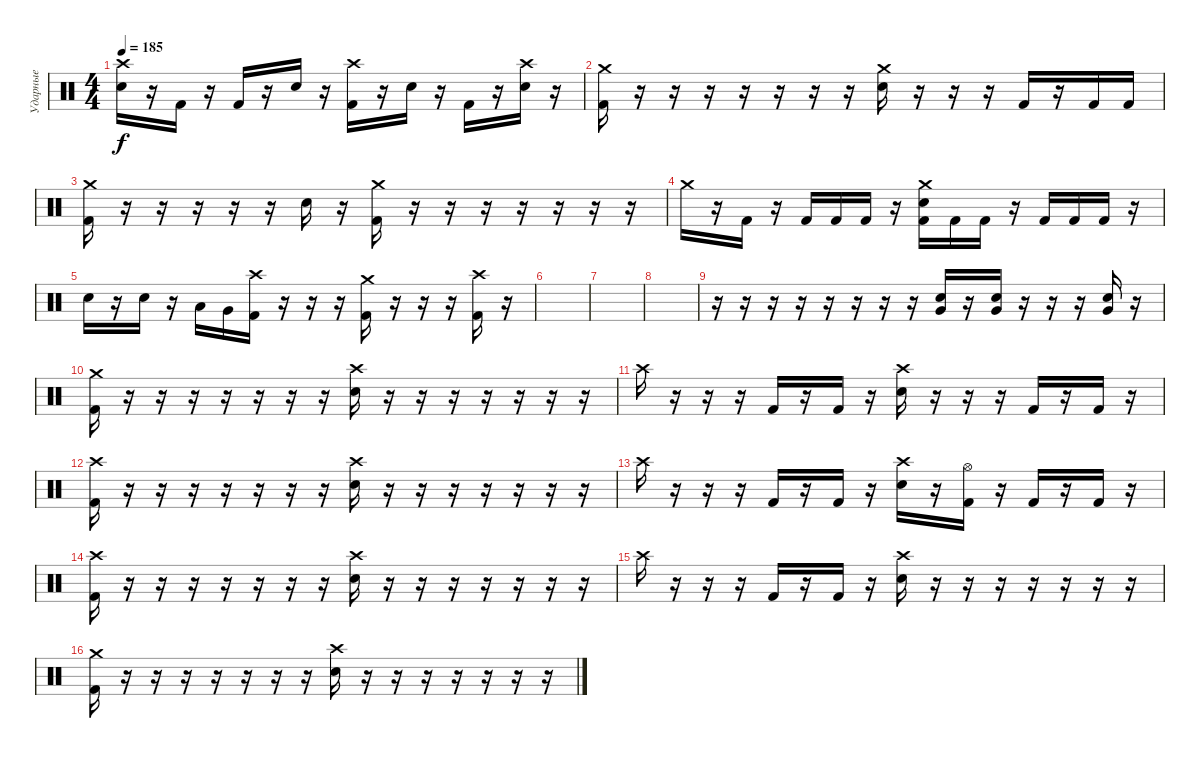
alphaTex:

\track ("Ударные" "Ударные") {instrument percussion}
\staff {score}
\articulation defaults
\ts (4 4)
\tempo 185
\clef neutral
\ks c
("Crash high (hit)" "Electric Snare (hit)").16{dy f} r.16 "Kick (hit) 2".16 r.16 "Kick (hit) 2".16 r.16 "Electric Snare (hit)".16 r.16 ("Crash high (hit)" "Kick (hit) 2").16 r.16 "Electric Snare (hit)".16 r.16 "Kick (hit) 2".16 r.16 ("Crash high (hit)" "Electric Snare (hit)").16 r.16 |
("Crash medium (hit)" "Kick (hit) 2").16 r.16 r.16 r.16 r.16 r.16 r.16 r.16 ("Crash medium (hit)" "Electric Snare (hit)").16 r.16 r.16 r.16 "Kick (hit) 2".16 r.16 "Kick (hit) 2".16 "Kick (hit) 2".16 |
("Crash medium (hit)" "Kick (hit) 2").16 r.16 r.16 r.16 r.16 r.16 "Electric Snare (hit)".16 r.16 ("Crash medium (hit)" "Kick (hit) 2").16 r.16 r.16 r.16 r.16 r.16 r.16 r.16 |
"Crash medium (hit)".16 r.16 "Kick (hit) 2".16 r.16 "Kick (hit) 2".16 "Kick (hit) 2".16 "Kick (hit) 2".16 r.16 ("Crash medium (hit)" "Electric Snare (hit)" "Kick (hit) 2").16 "Kick (hit) 2".16 "Kick (hit) 2".16 r.16 "Kick (hit) 2".16 "Kick (hit) 2".16 "Kick (hit) 2".16 r.16 |
"Electric Snare (hit)".16 r.16 "Electric Snare (hit)".16 r.16 "Low Tom (hit)".16 "Very Low Tom (hit)".16 ("Crash high (hit)" "Kick (hit) 2").16 r.16 r.16 r.16 ("Crash medium (hit)" "Kick (hit) 2").16 r.16 r.16 r.16 ("Crash high (hit)" "Kick (hit) 2").16 r.16 |
|
|
|
r.16 r.16 r.16 r.16 r.16 r.16 r.16 r.16 ("Very Low Tom (hit)" "Electric Snare (hit)").16 r.16 ("Very Low Tom (hit)" "Electric Snare (hit)").16 r.16 r.16 r.16 ("Very Low Tom (hit)" "Electric Snare (hit)").16 r.16 |
("Crash medium (hit)" "Kick (hit) 2").16 r.16 r.16 r.16 r.16 r.16 r.16 r.16 ("Crash high (hit)" "Electric Snare (hit)").16 r.16 r.16 r.16 r.16 r.16 r.16 r.16 |
"Crash high (hit)".16 r.16 r.16 r.16 "Kick (hit) 2".16 r.16 "Kick (hit) 2".16 r.16 ("Crash high (hit)" "Electric Snare (hit)").16 r.16 r.16 r.16 "Kick (hit) 2".16 r.16 "Kick (hit) 2".16 r.16 |
("Crash high (hit)" "Kick (hit) 2").16 r.16 r.16 r.16 r.16 r.16 r.16 r.16 ("Crash high (hit)" "Electric Snare (hit)").16 r.16 r.16 r.16 r.16 r.16 r.16 r.16 |
"Crash high (hit)".16 r.16 r.16 r.16 "Kick (hit) 2".16 r.16 "Kick (hit) 2".16 r.16 ("Crash high (hit)" "Electric Snare (hit)").16 r.16 ("Hi-Hat (open)" "Kick (hit) 2").16 r.16 "Kick (hit) 2".16 r.16 "Kick (hit) 2".16 r.16 |
("Crash high (hit)" "Kick (hit) 2").16 r.16 r.16 r.16 r.16 r.16 r.16 r.16 ("Crash high (hit)" "Electric Snare (hit)").16 r.16 r.16 r.16 r.16 r.16 r.16 r.16 |
"Crash high (hit)".16 r.16 r.16 r.16 "Kick (hit) 2".16 r.16 "Kick (hit) 2".16 r.16 ("Crash high (hit)" "Electric Snare (hit)").16 r.16 r.16 r.16 r.16 r.16 r.16 r.16 |
("Crash medium (hit)" "Kick (hit) 2").16 r.16 r.16 r.16 r.16 r.16 r.16 r.16 ("Crash high (hit)" "Electric Snare (hit)").16 r.16 r.16 r.16 r.16 r.16 r.16 r.16
